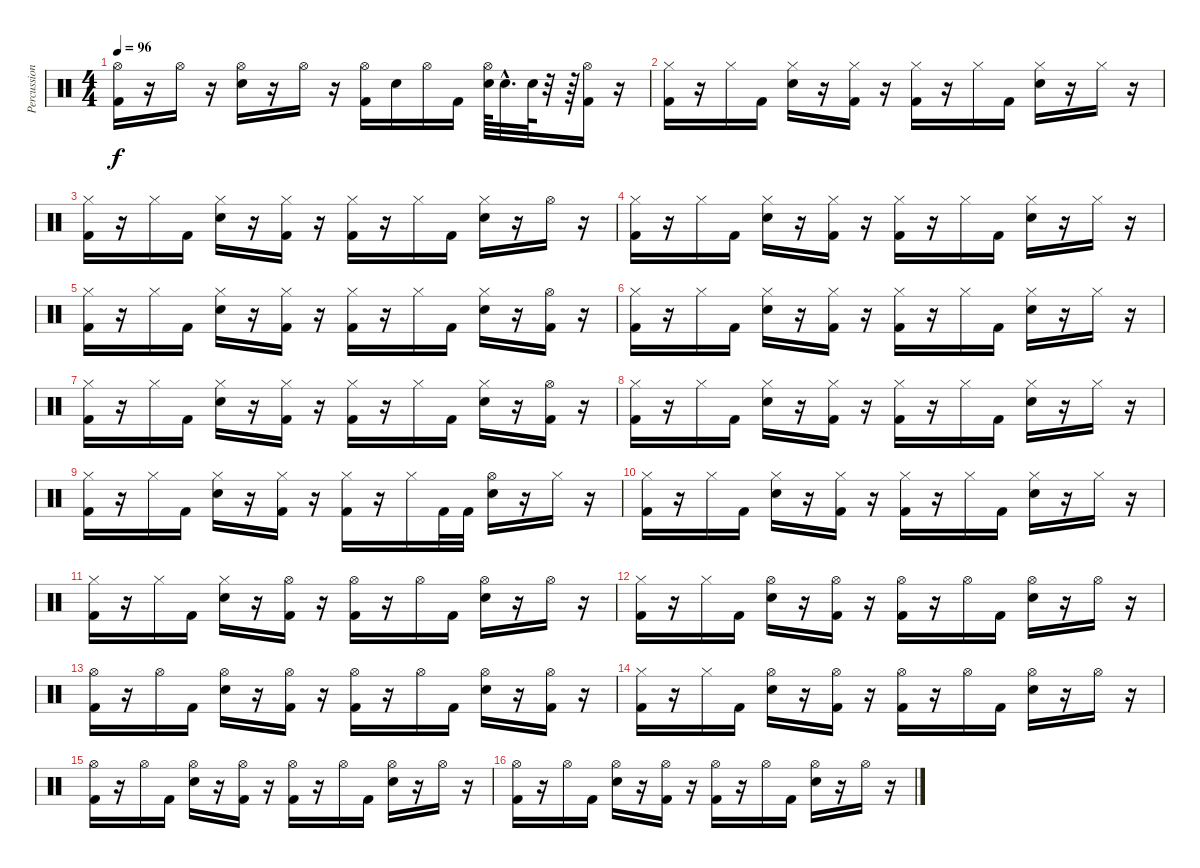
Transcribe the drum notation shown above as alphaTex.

\track ("Percussion" "Percussion") {instrument percussion}
\staff {score}
\articulation defaults
\ts (4 4)
\tempo 96
\clef neutral
\ks c
("Hi-Hat (open)" "Kick (hit) 2").16{dy f} r.16 "Hi-Hat (open)".16 r.16 ("Hi-Hat (open)" "Electric Snare (hit)").16 r.16 "Hi-Hat (open)".16 r.16 ("Kick (hit) 2" "Hi-Hat (open)").16 "Electric Snare (hit)".16 "Hi-Hat (open)".16 "Kick (hit) 2".16 ("Hi-Hat (open)" "Electric Snare (hit)").64 "Electric Snare (hit)"{hac}.32{d} "Electric Snare (hit)".64 r.32 r.64 ("Kick (hit) 2" "Hi-Hat (open)").16 r.16 |
("Kick (hit) 2" "Hi-Hat (closed)").16 r.16 "Hi-Hat (closed)".16 "Kick (hit) 2".16 ("Electric Snare (hit)" "Hi-Hat (closed)").16 r.16 ("Kick (hit) 2" "Hi-Hat (closed)").16 r.16 ("Kick (hit) 2" "Hi-Hat (closed)").16 r.16 "Hi-Hat (closed)".16 "Kick (hit) 2".16 ("Electric Snare (hit)" "Hi-Hat (closed)").16 r.16 "Hi-Hat (closed)".16 r.16 |
("Hi-Hat (closed)" "Kick (hit) 2").16 r.16 "Hi-Hat (closed)".16 "Kick (hit) 2".16 ("Electric Snare (hit)" "Hi-Hat (closed)").16 r.16 ("Kick (hit) 2" "Hi-Hat (closed)").16 r.16 ("Kick (hit) 2" "Hi-Hat (closed)").16 r.16 "Hi-Hat (closed)".16 "Kick (hit) 2".16 ("Electric Snare (hit)" "Hi-Hat (closed)").16 r.16 "Hi-Hat (open)".16 r.16 |
("Kick (hit) 2" "Hi-Hat (closed)").16 r.16 "Hi-Hat (closed)".16 "Kick (hit) 2".16 ("Electric Snare (hit)" "Hi-Hat (closed)").16 r.16 ("Kick (hit) 2" "Hi-Hat (closed)").16 r.16 ("Kick (hit) 2" "Hi-Hat (closed)").16 r.16 "Hi-Hat (closed)".16 "Kick (hit) 2".16 ("Electric Snare (hit)" "Hi-Hat (closed)").16 r.16 "Hi-Hat (closed)".16 r.16 |
("Hi-Hat (closed)" "Kick (hit) 2").16 r.16 "Hi-Hat (closed)".16 "Kick (hit) 2".16 ("Electric Snare (hit)" "Hi-Hat (closed)").16 r.16 ("Kick (hit) 2" "Hi-Hat (closed)").16 r.16 ("Kick (hit) 2" "Hi-Hat (closed)").16 r.16 "Hi-Hat (closed)".16 "Kick (hit) 2".16 ("Electric Snare (hit)" "Hi-Hat (closed)").16 r.16 ("Kick (hit) 2" "Hi-Hat (open)").16 r.16 |
("Kick (hit) 2" "Hi-Hat (closed)").16 r.16 "Hi-Hat (closed)".16 "Kick (hit) 2".16 ("Electric Snare (hit)" "Hi-Hat (closed)").16 r.16 ("Kick (hit) 2" "Hi-Hat (closed)").16 r.16 ("Kick (hit) 2" "Hi-Hat (closed)").16 r.16 "Hi-Hat (closed)".16 "Kick (hit) 2".16 ("Electric Snare (hit)" "Hi-Hat (closed)").16 r.16 "Hi-Hat (closed)".16 r.16 |
("Hi-Hat (closed)" "Kick (hit) 2").16 r.16 "Hi-Hat (closed)".16 "Kick (hit) 2".16 ("Electric Snare (hit)" "Hi-Hat (closed)").16 r.16 ("Kick (hit) 2" "Hi-Hat (closed)").16 r.16 ("Kick (hit) 2" "Hi-Hat (closed)").16 r.16 "Hi-Hat (closed)".16 "Kick (hit) 2".16 ("Electric Snare (hit)" "Hi-Hat (closed)").16 r.16 ("Kick (hit) 2" "Hi-Hat (open)").16 r.16 |
("Kick (hit) 2" "Hi-Hat (closed)").16 r.16 "Hi-Hat (closed)".16 "Kick (hit) 2".16 ("Electric Snare (hit)" "Hi-Hat (closed)").16 r.16 ("Kick (hit) 2" "Hi-Hat (closed)").16 r.16 ("Kick (hit) 2" "Hi-Hat (closed)").16 r.16 "Hi-Hat (closed)".16 "Kick (hit) 2".16 ("Electric Snare (hit)" "Hi-Hat (closed)").16 r.16 "Hi-Hat (closed)".16 r.16 |
("Hi-Hat (closed)" "Kick (hit) 2").16 r.16 "Hi-Hat (closed)".16 "Kick (hit) 2".16 ("Electric Snare (hit)" "Hi-Hat (closed)").16 r.16 ("Kick (hit) 2" "Hi-Hat (closed)").16 r.16 ("Kick (hit) 2" "Hi-Hat (closed)").16 r.16 "Hi-Hat (closed)".16 "Kick (hit) 2".32 "Kick (hit) 2".32 ("Electric Snare (hit)" "Hi-Hat (open)").16 r.16 "Hi-Hat (closed)".16 r.16 |
("Kick (hit) 2" "Hi-Hat (closed)").16 r.16 "Hi-Hat (closed)".16 "Kick (hit) 2".16 ("Electric Snare (hit)" "Hi-Hat (closed)").16 r.16 ("Kick (hit) 2" "Hi-Hat (closed)").16 r.16 ("Kick (hit) 2" "Hi-Hat (closed)").16 r.16 "Hi-Hat (closed)".16 "Kick (hit) 2".16 ("Electric Snare (hit)" "Hi-Hat (closed)").16 r.16 "Hi-Hat (closed)".16 r.16 |
("Hi-Hat (closed)" "Kick (hit) 2").16 r.16 "Hi-Hat (closed)".16 "Kick (hit) 2".16 ("Electric Snare (hit)" "Hi-Hat (closed)").16 r.16 ("Kick (hit) 2" "Hi-Hat (open)").16 r.16 ("Kick (hit) 2" "Hi-Hat (open)").16 r.16 "Hi-Hat (open)".16 "Kick (hit) 2".16 ("Electric Snare (hit)" "Hi-Hat (open)").16 r.16 "Hi-Hat (open)".16 r.16 |
("Kick (hit) 2" "Hi-Hat (closed)").16 r.16 "Hi-Hat (closed)".16 "Kick (hit) 2".16 ("Electric Snare (hit)" "Hi-Hat (open)").16 r.16 ("Kick (hit) 2" "Hi-Hat (open)").16 r.16 ("Kick (hit) 2" "Hi-Hat (open)").16 r.16 "Hi-Hat (open)".16 "Kick (hit) 2".16 ("Electric Snare (hit)" "Hi-Hat (open)").16 r.16 "Hi-Hat (open)".16 r.16 |
("Hi-Hat (open)" "Kick (hit) 2").16 r.16 "Hi-Hat (open)".16 "Kick (hit) 2".16 ("Electric Snare (hit)" "Hi-Hat (open)").16 r.16 ("Kick (hit) 2" "Hi-Hat (open)").16 r.16 ("Kick (hit) 2" "Hi-Hat (open)").16 r.16 "Hi-Hat (open)".16 "Kick (hit) 2".16 ("Electric Snare (hit)" "Hi-Hat (open)").16 r.16 ("Kick (hit) 2" "Hi-Hat (open)").16 r.16 |
("Kick (hit) 2" "Hi-Hat (closed)").16 r.16 "Hi-Hat (closed)".16 "Kick (hit) 2".16 ("Electric Snare (hit)" "Hi-Hat (open)").16 r.16 ("Kick (hit) 2" "Hi-Hat (open)").16 r.16 ("Kick (hit) 2" "Hi-Hat (open)").16 r.16 "Hi-Hat (open)".16 "Kick (hit) 2".16 ("Electric Snare (hit)" "Hi-Hat (open)").16 r.16 "Hi-Hat (open)".16 r.16 |
("Kick (hit) 2" "Hi-Hat (open)").16 r.16 "Hi-Hat (open)".16 "Kick (hit) 2".16 ("Electric Snare (hit)" "Hi-Hat (open)").16 r.16 ("Kick (hit) 2" "Hi-Hat (open)").16 r.16 ("Kick (hit) 2" "Hi-Hat (open)").16 r.16 "Hi-Hat (open)".16 "Kick (hit) 2".16 ("Electric Snare (hit)" "Hi-Hat (open)").16 r.16 "Hi-Hat (open)".16 r.16 |
("Kick (hit) 2" "Hi-Hat (open)").16 r.16 "Hi-Hat (open)".16 "Kick (hit) 2".16 ("Electric Snare (hit)" "Hi-Hat (open)").16 r.16 ("Kick (hit) 2" "Hi-Hat (open)").16 r.16 ("Kick (hit) 2" "Hi-Hat (open)").16 r.16 "Hi-Hat (open)".16 "Kick (hit) 2".16 ("Electric Snare (hit)" "Hi-Hat (open)").16 r.16 "Hi-Hat (open)".16 r.16
